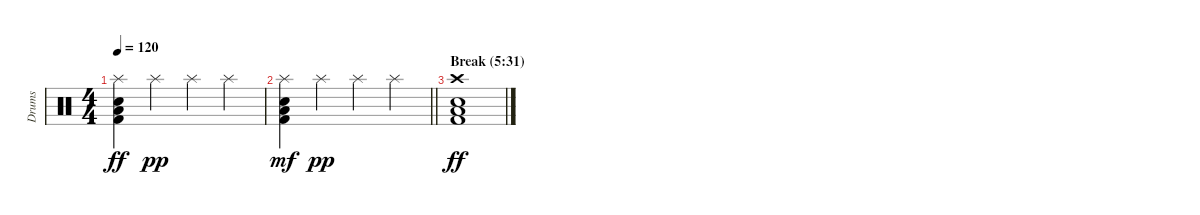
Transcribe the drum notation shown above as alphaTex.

\track ("Drums" "Drums") {instrument percussion}
\staff {score}
\articulation defaults
\ts (4 4)
\tempo 120
\clef neutral
\ks c
("Splash (hit)" "Snare (hit) 2" "Low Floor Tom (hit)" "Kick (hit) 2").4{dy ff} "Splash (hit)".4{dy pp} "Splash (hit)".4 "Splash (hit)".4 |
\barLineRight lightlight
("Splash (hit)" "Low Floor Tom (hit)" "Snare (hit) 2" "Kick (hit) 2").4{dy mf} "Splash (hit)".4{dy pp} "Splash (hit)".4 "Splash (hit)".4 |
\section ("" "Break (5:31)")
("Crash high (hit)" "Snare (hit) 2" "Low Floor Tom (hit)" "Kick (hit) 2").1{dy ff}
